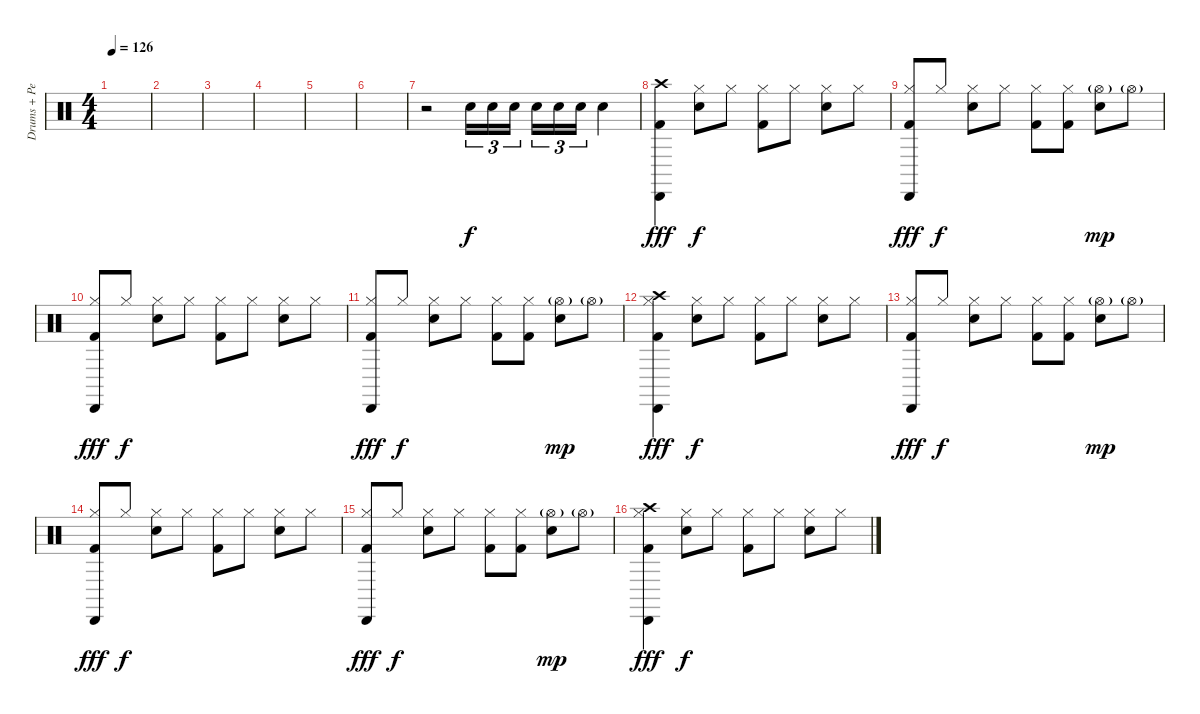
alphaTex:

\track ("Drums + Percussions" "Drums + Pe") {instrument percussion}
\staff {score}
\articulation defaults
\ts (4 4)
\tempo 126
\clef neutral
\ks c
|
|
|
|
|
|
r.2 "Snare (hit) 2".16{tu (3 2)} "Snare (hit) 2".16{tu (3 2)} "Snare (hit) 2".16{tu (3 2)} "Snare (hit) 2".16{tu (3 2)} "Snare (hit) 2".16{tu (3 2)} "Snare (hit) 2".16{tu (3 2)} "Snare (hit) 2".4 |
("Crash high (hit)" "Cabasa (hit)" "Kick (hit) 2").4{dy fff} ("Hi-Hat (closed)" "Electric Snare (hit)").8{dy f} "Hi-Hat (closed)".8 ("Hi-Hat (closed)" "Kick (hit) 2").8 "Hi-Hat (closed)".8 ("Hi-Hat (closed)" "Electric Snare (hit)").8 "Hi-Hat (closed)".8 |
("Hi-Hat (closed)" "Cabasa (hit)" "Kick (hit) 2").8{dy fff} "Hi-Hat (closed)".8{dy f} ("Hi-Hat (closed)" "Electric Snare (hit)").8 "Hi-Hat (closed)".8 ("Hi-Hat (closed)" "Kick (hit) 2").8 ("Hi-Hat (closed)" "Kick (hit) 2").8 ("Hi-Hat (open)"{g} "Electric Snare (hit)").8{dy mp} "Hi-Hat (open)"{g}.8 |
("Hi-Hat (closed)" "Cabasa (hit)" "Kick (hit) 2").8{dy fff} "Hi-Hat (closed)".8{dy f} ("Hi-Hat (closed)" "Electric Snare (hit)").8 "Hi-Hat (closed)".8 ("Hi-Hat (closed)" "Kick (hit) 2").8 "Hi-Hat (closed)".8 ("Hi-Hat (closed)" "Electric Snare (hit)").8 "Hi-Hat (closed)".8 |
("Hi-Hat (closed)" "Cabasa (hit)" "Kick (hit) 2").8{dy fff} "Hi-Hat (closed)".8{dy f} ("Hi-Hat (closed)" "Electric Snare (hit)").8 "Hi-Hat (closed)".8 ("Hi-Hat (closed)" "Kick (hit) 2").8 ("Hi-Hat (closed)" "Kick (hit) 2").8 ("Hi-Hat (open)"{g} "Electric Snare (hit)").8{dy mp} "Hi-Hat (open)"{g}.8 |
("Crash high (hit)" "Hi-Hat (closed)" "Cabasa (hit)" "Kick (hit) 2").4{dy fff} ("Hi-Hat (closed)" "Electric Snare (hit)").8{dy f} "Hi-Hat (closed)".8 ("Hi-Hat (closed)" "Kick (hit) 2").8 "Hi-Hat (closed)".8 ("Hi-Hat (closed)" "Electric Snare (hit)").8 "Hi-Hat (closed)".8 |
("Hi-Hat (closed)" "Cabasa (hit)" "Kick (hit) 2").8{dy fff} "Hi-Hat (closed)".8{dy f} ("Hi-Hat (closed)" "Electric Snare (hit)").8 "Hi-Hat (closed)".8 ("Hi-Hat (closed)" "Kick (hit) 2").8 ("Hi-Hat (closed)" "Kick (hit) 2").8 ("Hi-Hat (open)"{g} "Electric Snare (hit)").8{dy mp} "Hi-Hat (open)"{g}.8 |
("Hi-Hat (closed)" "Cabasa (hit)" "Kick (hit) 2").8{dy fff} "Hi-Hat (closed)".8{dy f} ("Hi-Hat (closed)" "Electric Snare (hit)").8 "Hi-Hat (closed)".8 ("Hi-Hat (closed)" "Kick (hit) 2").8 "Hi-Hat (closed)".8 ("Hi-Hat (closed)" "Electric Snare (hit)").8 "Hi-Hat (closed)".8 |
("Hi-Hat (closed)" "Cabasa (hit)" "Kick (hit) 2").8{dy fff} "Hi-Hat (closed)".8{dy f} ("Hi-Hat (closed)" "Electric Snare (hit)").8 "Hi-Hat (closed)".8 ("Hi-Hat (closed)" "Kick (hit) 2").8 ("Hi-Hat (closed)" "Kick (hit) 2").8 ("Hi-Hat (open)"{g} "Electric Snare (hit)").8{dy mp} "Hi-Hat (open)"{g}.8 |
("Crash high (hit)" "Hi-Hat (closed)" "Cabasa (hit)" "Kick (hit) 2").4{dy fff} ("Hi-Hat (closed)" "Electric Snare (hit)").8{dy f} "Hi-Hat (closed)".8 ("Hi-Hat (closed)" "Kick (hit) 2").8 "Hi-Hat (closed)".8 ("Hi-Hat (closed)" "Electric Snare (hit)").8 "Hi-Hat (closed)".8
